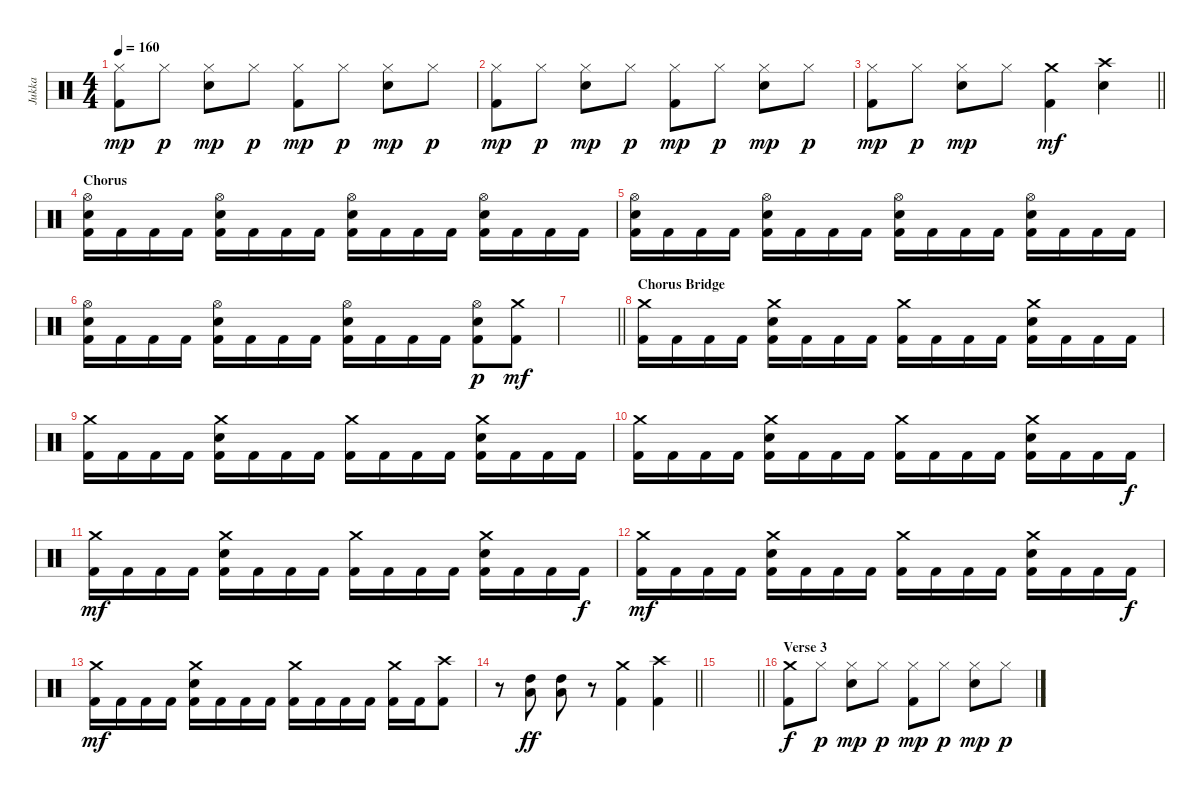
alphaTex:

\track ("Jukka" "Jukka") {instrument percussion}
\staff {score}
\articulation defaults
\ts (4 4)
\tempo 160
\clef neutral
\ks c
("Hi-Hat (closed)" "Kick (hit) 2").8{dy mp} "Hi-Hat (closed)".8{dy p} ("Hi-Hat (closed)" "Snare (hit) 2").8{dy mp} "Hi-Hat (closed)".8{dy p} ("Hi-Hat (closed)" "Kick (hit) 2").8{dy mp} "Hi-Hat (closed)".8{dy p} ("Hi-Hat (closed)" "Snare (hit) 2").8{dy mp} "Hi-Hat (closed)".8{dy p} |
("Hi-Hat (closed)" "Kick (hit) 2").8{dy mp} "Hi-Hat (closed)".8{dy p} ("Hi-Hat (closed)" "Snare (hit) 2").8{dy mp} "Hi-Hat (closed)".8{dy p} ("Hi-Hat (closed)" "Kick (hit) 2").8{dy mp} "Hi-Hat (closed)".8{dy p} ("Hi-Hat (closed)" "Snare (hit) 2").8{dy mp} "Hi-Hat (closed)".8{dy p} |
\barLineRight lightlight
("Hi-Hat (closed)" "Kick (hit) 2").8{dy mp} "Hi-Hat (closed)".8{dy p} ("Hi-Hat (closed)" "Snare (hit) 2").8{dy mp} "Hi-Hat (closed)".8 ("Crash medium (hit)" "Kick (hit) 2").4{dy mf} ("Crash high (hit)" "Snare (hit) 2").4 |
\section ("" "Chorus")
("Hi-Hat (open)" "Snare (hit) 2" "Kick (hit) 2").16 "Kick (hit) 2".16 "Kick (hit) 2".16 "Kick (hit) 2".16 ("Hi-Hat (open)" "Snare (hit) 2" "Kick (hit) 2").16 "Kick (hit) 2".16 "Kick (hit) 2".16 "Kick (hit) 2".16 ("Hi-Hat (open)" "Snare (hit) 2" "Kick (hit) 2").16 "Kick (hit) 2".16 "Kick (hit) 2".16 "Kick (hit) 2".16 ("Hi-Hat (open)" "Snare (hit) 2" "Kick (hit) 2").16 "Kick (hit) 2".16 "Kick (hit) 2".16 "Kick (hit) 2".16 |
("Hi-Hat (open)" "Snare (hit) 2" "Kick (hit) 2").16 "Kick (hit) 2".16 "Kick (hit) 2".16 "Kick (hit) 2".16 ("Hi-Hat (open)" "Snare (hit) 2" "Kick (hit) 2").16 "Kick (hit) 2".16 "Kick (hit) 2".16 "Kick (hit) 2".16 ("Hi-Hat (open)" "Snare (hit) 2" "Kick (hit) 2").16 "Kick (hit) 2".16 "Kick (hit) 2".16 "Kick (hit) 2".16 ("Hi-Hat (open)" "Snare (hit) 2" "Kick (hit) 2").16 "Kick (hit) 2".16 "Kick (hit) 2".16 "Kick (hit) 2".16 |
("Hi-Hat (open)" "Snare (hit) 2" "Kick (hit) 2").16 "Kick (hit) 2".16 "Kick (hit) 2".16 "Kick (hit) 2".16 ("Hi-Hat (open)" "Snare (hit) 2" "Kick (hit) 2").16 "Kick (hit) 2".16 "Kick (hit) 2".16 "Kick (hit) 2".16 ("Hi-Hat (open)" "Snare (hit) 2" "Kick (hit) 2").16 "Kick (hit) 2".16 "Kick (hit) 2".16 "Kick (hit) 2".16 ("Hi-Hat (open)" "Snare (hit) 2" "Kick (hit) 2").8{dy p} ("Crash medium (hit)" "Kick (hit) 2").8{dy mf} |
\barLineRight lightlight
|
\section ("" "Chorus Bridge")
("Crash medium (hit)" "Kick (hit) 2").16 "Kick (hit) 2".16 "Kick (hit) 2".16 "Kick (hit) 2".16 ("Crash medium (hit)" "Snare (hit) 2" "Kick (hit) 2").16 "Kick (hit) 2".16 "Kick (hit) 2".16 "Kick (hit) 2".16 ("Crash medium (hit)" "Kick (hit) 2").16 "Kick (hit) 2".16 "Kick (hit) 2".16 "Kick (hit) 2".16 ("Crash medium (hit)" "Snare (hit) 2" "Kick (hit) 2").16 "Kick (hit) 2".16 "Kick (hit) 2".16 "Kick (hit) 2".16 |
("Crash medium (hit)" "Kick (hit) 2").16 "Kick (hit) 2".16 "Kick (hit) 2".16 "Kick (hit) 2".16 ("Crash medium (hit)" "Snare (hit) 2" "Kick (hit) 2").16 "Kick (hit) 2".16 "Kick (hit) 2".16 "Kick (hit) 2".16 ("Crash medium (hit)" "Kick (hit) 2").16 "Kick (hit) 2".16 "Kick (hit) 2".16 "Kick (hit) 2".16 ("Crash medium (hit)" "Snare (hit) 2" "Kick (hit) 2").16 "Kick (hit) 2".16 "Kick (hit) 2".16 "Kick (hit) 2".16 |
("Crash medium (hit)" "Kick (hit) 2").16 "Kick (hit) 2".16 "Kick (hit) 2".16 "Kick (hit) 2".16 ("Crash medium (hit)" "Snare (hit) 2" "Kick (hit) 2").16 "Kick (hit) 2".16 "Kick (hit) 2".16 "Kick (hit) 2".16 ("Crash medium (hit)" "Kick (hit) 2").16 "Kick (hit) 2".16 "Kick (hit) 2".16 "Kick (hit) 2".16 ("Crash medium (hit)" "Snare (hit) 2" "Kick (hit) 2").16 "Kick (hit) 2".16 "Kick (hit) 2".16 "Kick (hit) 2".16{dy f} |
("Crash medium (hit)" "Kick (hit) 2").16{dy mf} "Kick (hit) 2".16 "Kick (hit) 2".16 "Kick (hit) 2".16 ("Crash medium (hit)" "Snare (hit) 2" "Kick (hit) 2").16 "Kick (hit) 2".16 "Kick (hit) 2".16 "Kick (hit) 2".16 ("Crash medium (hit)" "Kick (hit) 2").16 "Kick (hit) 2".16 "Kick (hit) 2".16 "Kick (hit) 2".16 ("Crash medium (hit)" "Snare (hit) 2" "Kick (hit) 2").16 "Kick (hit) 2".16 "Kick (hit) 2".16 "Kick (hit) 2".16{dy f} |
("Crash medium (hit)" "Kick (hit) 2").16{dy mf} "Kick (hit) 2".16 "Kick (hit) 2".16 "Kick (hit) 2".16 ("Crash medium (hit)" "Snare (hit) 2" "Kick (hit) 2").16 "Kick (hit) 2".16 "Kick (hit) 2".16 "Kick (hit) 2".16 ("Crash medium (hit)" "Kick (hit) 2").16 "Kick (hit) 2".16 "Kick (hit) 2".16 "Kick (hit) 2".16 ("Crash medium (hit)" "Snare (hit) 2" "Kick (hit) 2").16 "Kick (hit) 2".16 "Kick (hit) 2".16 "Kick (hit) 2".16{dy f} |
("Crash medium (hit)" "Kick (hit) 2").16{dy mf} "Kick (hit) 2".16 "Kick (hit) 2".16 "Kick (hit) 2".16 ("Crash medium (hit)" "Snare (hit) 2" "Kick (hit) 2").16 "Kick (hit) 2".16 "Kick (hit) 2".16 "Kick (hit) 2".16 ("Crash medium (hit)" "Kick (hit) 2").16 "Kick (hit) 2".16 "Kick (hit) 2".16 "Kick (hit) 2".16 ("Crash medium (hit)" "Kick (hit) 2").16 "Kick (hit) 2".16 ("Crash high (hit)" "Kick (hit) 2").8 |
\barLineRight lightlight
r.8 ("High Tom (hit)" "Low Tom (hit)").8{dy ff} ("High Tom (hit)" "Low Tom (hit)").8 r.8 ("Crash medium (hit)" "Kick (hit) 2").4 ("Crash high (hit)" "Kick (hit) 2").4 |
\barLineRight lightlight
|
\section ("" "Verse 3")
("Crash medium (hit)" "Kick (hit) 2").8{dy f} "Hi-Hat (closed)".8{dy p} ("Hi-Hat (closed)" "Snare (hit) 2").8{dy mp} "Hi-Hat (closed)".8{dy p} ("Hi-Hat (closed)" "Kick (hit) 2").8{dy mp} "Hi-Hat (closed)".8{dy p} ("Hi-Hat (closed)" "Snare (hit) 2").8{dy mp} "Hi-Hat (closed)".8{dy p}
